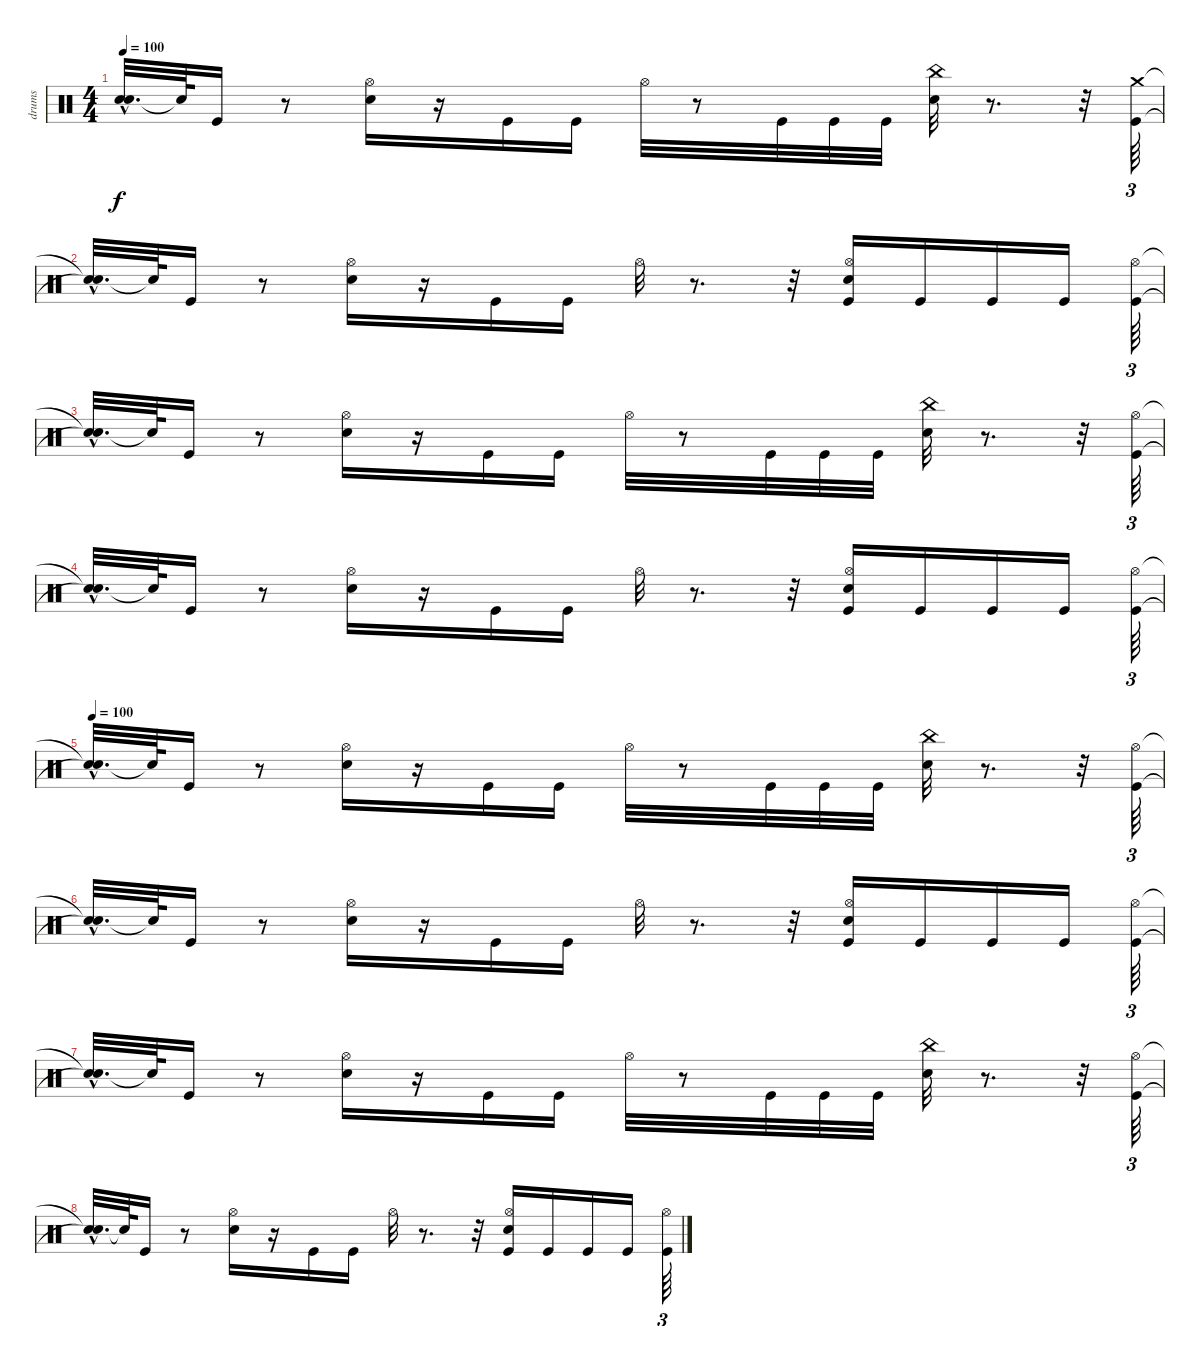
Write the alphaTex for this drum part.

\track ("drums" "drums") {instrument percussion}
\staff {score}
\articulation defaults
\ts (4 4)
\tempo 100
\clef neutral
\ks c
("Snare (hit)"{t} "Snare (hit)"{hac t}).32{d dy f} "Snare (hit)"{t}.64 "Kick (hit)".16 r.8 ("Hi-Hat (open)" "Electric Snare (hit)").16 r.16 "Kick (hit)".16 "Kick (hit)".16 "Hi-Hat (open)".32 r.8 "Kick (hit)".32 "Kick (hit)".32 "Kick (hit)".32 ("China (hit)" "Electric Snare (hit)").32 r.8{d} r.32 ("Kick (hit)" "Crash medium (hit)").64{tu (3 2)} |
("Snare (hit)"{hac t} "Snare (hit)"{t}).32{d} "Snare (hit)"{t}.64 "Kick (hit)".16 r.8 ("Electric Snare (hit)" "Hi-Hat (open)").16 r.16 "Kick (hit)".16 "Kick (hit)".16 "Hi-Hat (open)".32 r.8{d} r.32 ("Kick (hit)" "Electric Snare (hit)" "Hi-Hat (open)").16 "Kick (hit)".16 "Kick (hit)".16 "Kick (hit)".16 ("Hi-Hat (open)" "Kick (hit)").64{tu (3 2)} |
("Snare (hit)"{t} "Snare (hit)"{hac t}).32{d} "Snare (hit)"{t}.64 "Kick (hit)".16 r.8 ("Hi-Hat (open)" "Electric Snare (hit)").16 r.16 "Kick (hit)".16 "Kick (hit)".16 "Hi-Hat (open)".32 r.8 "Kick (hit)".32 "Kick (hit)".32 "Kick (hit)".32 ("Electric Snare (hit)" "China (hit)").32 r.8{d} r.32 ("Kick (hit)" "Hi-Hat (open)").64{tu (3 2)} |
("Snare (hit)"{hac t} "Snare (hit)"{t}).32{d} "Snare (hit)"{t}.64 "Kick (hit)".16 r.8 ("Electric Snare (hit)" "Hi-Hat (open)").16 r.16 "Kick (hit)".16 "Kick (hit)".16 "Hi-Hat (open)".32 r.8{d} r.32 ("Kick (hit)" "Hi-Hat (open)" "Electric Snare (hit)").16 "Kick (hit)".16 "Kick (hit)".16 "Kick (hit)".16 ("Kick (hit)" "Hi-Hat (open)").64{tu (3 2)} |
\tempo 100
("Snare (hit)"{hac t} "Snare (hit)"{t}).32{d} "Snare (hit)"{t}.64 "Kick (hit)".16 r.8 ("Electric Snare (hit)" "Hi-Hat (open)").16 r.16 "Kick (hit)".16 "Kick (hit)".16 "Hi-Hat (open)".32 r.8 "Kick (hit)".32 "Kick (hit)".32 "Kick (hit)".32 ("China (hit)" "Electric Snare (hit)").32 r.8{d} r.32 ("Hi-Hat (open)" "Kick (hit)").64{tu (3 2)} |
("Snare (hit)"{t} "Snare (hit)"{hac t}).32{d} "Snare (hit)"{t}.64 "Kick (hit)".16 r.8 ("Hi-Hat (open)" "Electric Snare (hit)").16 r.16 "Kick (hit)".16 "Kick (hit)".16 "Hi-Hat (open)".32 r.8{d} r.32 ("Kick (hit)" "Hi-Hat (open)" "Electric Snare (hit)").16 "Kick (hit)".16 "Kick (hit)".16 "Kick (hit)".16 ("Kick (hit)" "Hi-Hat (open)").64{tu (3 2)} |
("Snare (hit)"{hac t} "Snare (hit)"{t}).32{d} "Snare (hit)"{t}.64 "Kick (hit)".16 r.8 ("Electric Snare (hit)" "Hi-Hat (open)").16 r.16 "Kick (hit)".16 "Kick (hit)".16 "Hi-Hat (open)".32 r.8 "Kick (hit)".32 "Kick (hit)".32 "Kick (hit)".32 ("China (hit)" "Electric Snare (hit)").32 r.8{d} r.32 ("Hi-Hat (open)" "Kick (hit)").64{tu (3 2)} |
("Snare (hit)"{t} "Snare (hit)"{hac t}).32{d} "Snare (hit)"{t}.64 "Kick (hit)".16 r.8 ("Hi-Hat (open)" "Electric Snare (hit)").16 r.16 "Kick (hit)".16 "Kick (hit)".16 "Hi-Hat (open)".32 r.8{d} r.32 ("Kick (hit)" "Hi-Hat (open)" "Electric Snare (hit)").16 "Kick (hit)".16 "Kick (hit)".16 "Kick (hit)".16 ("Hi-Hat (open)" "Kick (hit)").64{tu (3 2)}
